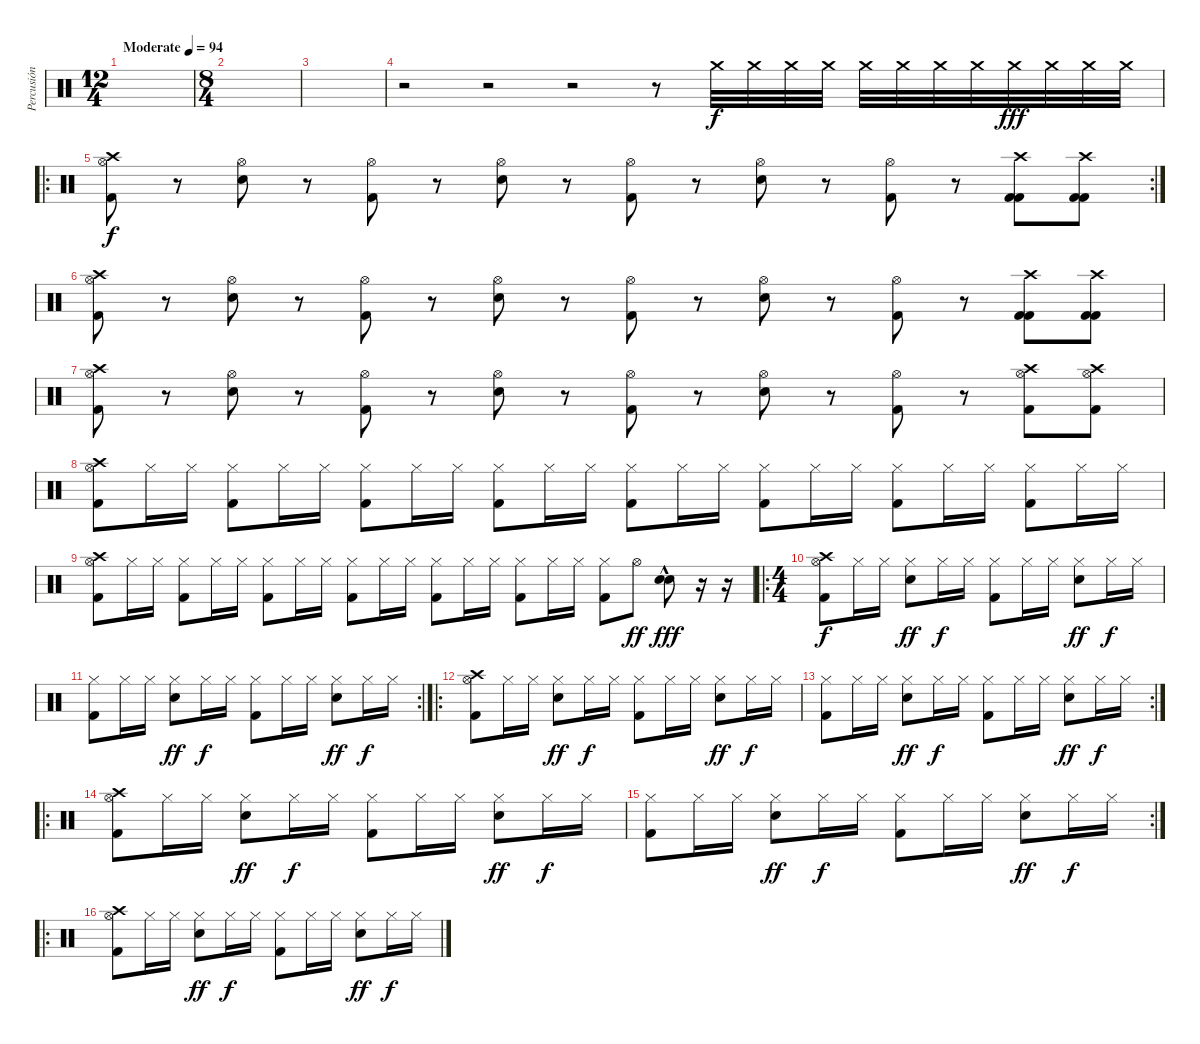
\track ("Percusión" "Percusión") {instrument percussion}
\staff {score}
\articulation defaults
\ts (12 4)
\tempo (94 "Moderate")
\clef neutral
\ks c
|
\ts (8 4)
|
|
r.2 r.2 r.2 r.8 "Crash medium (hit)".32 "Crash medium (hit)".32 "Crash medium (hit)".32 "Crash medium (hit)".32 "Crash medium (hit)".32{dy f} "Crash medium (hit)".32 "Crash medium (hit)".32 "Crash medium (hit)".32 "Crash medium (hit)".32{dy fff} "Crash medium (hit)".32 "Crash medium (hit)".32 "Crash medium (hit)".32 |
\ro
\rc 2
("Crash high (hit)" "Hi-Hat (open)" "Kick (hit) 2").8{dy f} r.8 ("Hi-Hat (open)" "Electric Snare (hit)").8 r.8 ("Hi-Hat (open)" "Kick (hit) 2").8 r.8 ("Hi-Hat (open)" "Electric Snare (hit)").8 r.8 ("Hi-Hat (open)" "Kick (hit) 2").8 r.8 ("Hi-Hat (open)" "Electric Snare (hit)").8 r.8 ("Hi-Hat (open)" "Kick (hit) 2").8 r.8 ("Crash high (hit)" "Kick (hit) 2" "Kick (hit) 2").8 ("Crash high (hit)" "Kick (hit) 2" "Kick (hit) 2").8 |
("Crash high (hit)" "Hi-Hat (open)" "Kick (hit) 2").8 r.8 ("Hi-Hat (open)" "Electric Snare (hit)").8 r.8 ("Hi-Hat (open)" "Kick (hit) 2").8 r.8 ("Hi-Hat (open)" "Electric Snare (hit)").8 r.8 ("Hi-Hat (open)" "Kick (hit) 2").8 r.8 ("Hi-Hat (open)" "Electric Snare (hit)").8 r.8 ("Hi-Hat (open)" "Kick (hit) 2").8 r.8 ("Crash high (hit)" "Kick (hit) 2" "Kick (hit) 2").8 ("Crash high (hit)" "Kick (hit) 2" "Kick (hit) 2").8 |
("Crash high (hit)" "Hi-Hat (open)" "Kick (hit) 2").8 r.8 ("Hi-Hat (open)" "Electric Snare (hit)").8 r.8 ("Hi-Hat (open)" "Kick (hit) 2").8 r.8 ("Hi-Hat (open)" "Electric Snare (hit)").8 r.8 ("Hi-Hat (open)" "Kick (hit) 2").8 r.8 ("Hi-Hat (open)" "Electric Snare (hit)").8 r.8 ("Hi-Hat (open)" "Kick (hit) 2").8 r.8 ("Crash high (hit)" "Hi-Hat (open)" "Kick (hit) 2").8 ("Crash high (hit)" "Hi-Hat (open)" "Kick (hit) 2").8 |
("Crash high (hit)" "Hi-Hat (open)" "Kick (hit) 2").8 "Hi-Hat (closed)".16 "Hi-Hat (closed)".16 ("Hi-Hat (closed)" "Kick (hit) 2").8 "Hi-Hat (closed)".16 "Hi-Hat (closed)".16 ("Hi-Hat (closed)" "Kick (hit) 2").8 "Hi-Hat (closed)".16 "Hi-Hat (closed)".16 ("Hi-Hat (closed)" "Kick (hit) 2").8 "Hi-Hat (closed)".16 "Hi-Hat (closed)".16 ("Hi-Hat (closed)" "Kick (hit) 2").8 "Hi-Hat (closed)".16 "Hi-Hat (closed)".16 ("Hi-Hat (closed)" "Kick (hit) 2").8 "Hi-Hat (closed)".16 "Hi-Hat (closed)".16 ("Hi-Hat (closed)" "Kick (hit) 2").8 "Hi-Hat (closed)".16 "Hi-Hat (closed)".16 ("Hi-Hat (closed)" "Kick (hit) 2").8 "Hi-Hat (closed)".16 "Hi-Hat (closed)".16 |
("Crash high (hit)" "Hi-Hat (open)" "Kick (hit) 2").8 "Hi-Hat (closed)".16 "Hi-Hat (closed)".16 ("Hi-Hat (closed)" "Kick (hit) 2").8 "Hi-Hat (closed)".16 "Hi-Hat (closed)".16 ("Hi-Hat (closed)" "Kick (hit) 2").8 "Hi-Hat (closed)".16 "Hi-Hat (closed)".16 ("Hi-Hat (closed)" "Kick (hit) 2").8 "Hi-Hat (closed)".16 "Hi-Hat (closed)".16 ("Hi-Hat (closed)" "Kick (hit) 2").8 "Hi-Hat (closed)".16 "Hi-Hat (closed)".16 ("Hi-Hat (closed)" "Kick (hit) 2").8 "Hi-Hat (closed)".16 "Hi-Hat (closed)".16 ("Hi-Hat (closed)" "Kick (hit) 2").8 "Hi-Hat (open)".8{dy ff} ("Electric Snare (hit)"{hac} "Electric Snare (hit)"{hac}).8{dy fff} r.16 r.16 |
\ro
\ts (4 4)
("Crash high (hit)" "Hi-Hat (open)" "Kick (hit) 2").8{dy f} "Hi-Hat (closed)".16 "Hi-Hat (closed)".16 ("Hi-Hat (closed)" "Electric Snare (hit)").8{dy ff} "Hi-Hat (closed)".16{dy f} "Hi-Hat (closed)".16 ("Hi-Hat (closed)" "Kick (hit) 2").8 "Hi-Hat (closed)".16 "Hi-Hat (closed)".16 ("Hi-Hat (closed)" "Electric Snare (hit)").8{dy ff} "Hi-Hat (closed)".16{dy f} "Hi-Hat (closed)".16 |
\rc 2
("Hi-Hat (closed)" "Kick (hit) 2").8 "Hi-Hat (closed)".16 "Hi-Hat (closed)".16 ("Hi-Hat (closed)" "Electric Snare (hit)").8{dy ff} "Hi-Hat (closed)".16{dy f} "Hi-Hat (closed)".16 ("Hi-Hat (closed)" "Kick (hit) 2").8 "Hi-Hat (closed)".16 "Hi-Hat (closed)".16 ("Hi-Hat (closed)" "Electric Snare (hit)").8{dy ff} "Hi-Hat (closed)".16{dy f} "Hi-Hat (closed)".16 |
\ro
("Crash high (hit)" "Hi-Hat (open)" "Kick (hit) 2").8 "Hi-Hat (closed)".16 "Hi-Hat (closed)".16 ("Hi-Hat (closed)" "Electric Snare (hit)").8{dy ff} "Hi-Hat (closed)".16{dy f} "Hi-Hat (closed)".16 ("Hi-Hat (closed)" "Kick (hit) 2").8 "Hi-Hat (closed)".16 "Hi-Hat (closed)".16 ("Hi-Hat (closed)" "Electric Snare (hit)").8{dy ff} "Hi-Hat (closed)".16{dy f} "Hi-Hat (closed)".16 |
\rc 2
("Hi-Hat (closed)" "Kick (hit) 2").8 "Hi-Hat (closed)".16 "Hi-Hat (closed)".16 ("Hi-Hat (closed)" "Electric Snare (hit)").8{dy ff} "Hi-Hat (closed)".16{dy f} "Hi-Hat (closed)".16 ("Hi-Hat (closed)" "Kick (hit) 2").8 "Hi-Hat (closed)".16 "Hi-Hat (closed)".16 ("Hi-Hat (closed)" "Electric Snare (hit)").8{dy ff} "Hi-Hat (closed)".16{dy f} "Hi-Hat (closed)".16 |
\ro
("Crash high (hit)" "Hi-Hat (open)" "Kick (hit) 2").8 "Hi-Hat (closed)".16 "Hi-Hat (closed)".16 ("Hi-Hat (closed)" "Electric Snare (hit)").8{dy ff} "Hi-Hat (closed)".16{dy f} "Hi-Hat (closed)".16 ("Hi-Hat (closed)" "Kick (hit) 2").8 "Hi-Hat (closed)".16 "Hi-Hat (closed)".16 ("Hi-Hat (closed)" "Electric Snare (hit)").8{dy ff} "Hi-Hat (closed)".16{dy f} "Hi-Hat (closed)".16 |
\rc 2
("Hi-Hat (closed)" "Kick (hit) 2").8 "Hi-Hat (closed)".16 "Hi-Hat (closed)".16 ("Hi-Hat (closed)" "Electric Snare (hit)").8{dy ff} "Hi-Hat (closed)".16{dy f} "Hi-Hat (closed)".16 ("Hi-Hat (closed)" "Kick (hit) 2").8 "Hi-Hat (closed)".16 "Hi-Hat (closed)".16 ("Hi-Hat (closed)" "Electric Snare (hit)").8{dy ff} "Hi-Hat (closed)".16{dy f} "Hi-Hat (closed)".16 |
\ro
("Crash high (hit)" "Hi-Hat (open)" "Kick (hit) 2").8 "Hi-Hat (closed)".16 "Hi-Hat (closed)".16 ("Hi-Hat (closed)" "Electric Snare (hit)").8{dy ff} "Hi-Hat (closed)".16{dy f} "Hi-Hat (closed)".16 ("Hi-Hat (closed)" "Kick (hit) 2").8 "Hi-Hat (closed)".16 "Hi-Hat (closed)".16 ("Hi-Hat (closed)" "Electric Snare (hit)").8{dy ff} "Hi-Hat (closed)".16{dy f} "Hi-Hat (closed)".16
